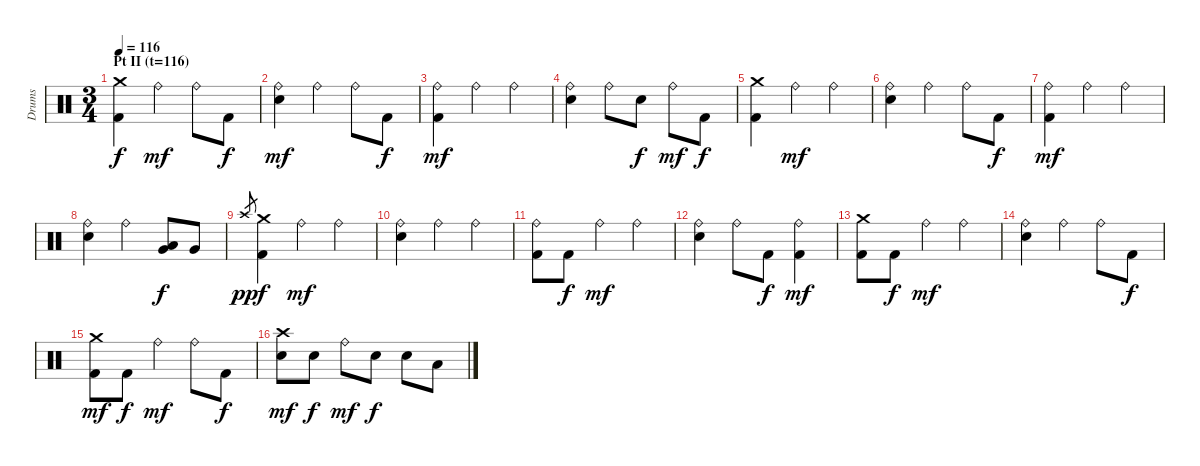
\track ("Drums" "Drums") {instrument percussion}
\staff {score}
\articulation defaults
\ts (3 4)
\section ("" "Pt II (t=116)")
\tempo 116
\clef neutral
\ks c
("Kick (hit) 2" "Crash medium (hit)").4{dy f} "Ride (bell)".4{dy mf} "Ride (bell)".8 "Kick (hit) 2".8{dy f} |
("Electric Snare (hit)" "Ride (bell)").4{dy mf} "Ride (bell)".4 "Ride (bell)".8 "Kick (hit) 2".8{dy f} |
("Kick (hit) 2" "Ride (bell)").4{dy mf} "Ride (bell)".4 "Ride (bell)".4 |
("Electric Snare (hit)" "Ride (bell)").4 "Ride (bell)".8 "Electric Snare (hit)".8{dy f} "Ride (bell)".8{dy mf} "Kick (hit) 2".8{dy f} |
("Kick (hit) 2" "Crash medium (hit)").4 "Ride (bell)".4{dy mf} "Ride (bell)".4 |
("Electric Snare (hit)" "Ride (bell)").4 "Ride (bell)".4 "Ride (bell)".8 "Kick (hit) 2".8{dy f} |
("Kick (hit) 2" "Ride (bell)").4{dy mf} "Ride (bell)".4 "Ride (bell)".4 |
("Electric Snare (hit)" "Ride (bell)").4 "Ride (bell)".4 ("Very Low Tom (hit)" "Low Tom (hit)").8{dy f} "Very Low Tom (hit)".8 |
"Crash high (hit)".8{gr dy pp} ("Kick (hit) 2" "Crash medium (hit)").4{dy f} "Ride (bell)".4{dy mf} "Ride (bell)".4 |
("Electric Snare (hit)" "Ride (bell)").4 "Ride (bell)".4 "Ride (bell)".4 |
("Kick (hit) 2" "Ride (bell)").8 "Kick (hit) 2".8{dy f} "Ride (bell)".4{dy mf} "Ride (bell)".4 |
("Electric Snare (hit)" "Ride (bell)").4 "Ride (bell)".8 "Kick (hit) 2".8{dy f} ("Kick (hit) 2" "Ride (bell)").4{dy mf} |
("Kick (hit) 2" "Crash medium (hit)").8 "Kick (hit) 2".8{dy f} "Ride (bell)".4{dy mf} "Ride (bell)".4 |
("Electric Snare (hit)" "Ride (bell)").4 "Ride (bell)".4 "Ride (bell)".8 "Kick (hit) 2".8{dy f} |
("Kick (hit) 2" "Crash medium (hit)").8{dy mf} "Kick (hit) 2".8{dy f} "Ride (bell)".4{dy mf} "Ride (bell)".8 "Kick (hit) 2".8{dy f} |
("Electric Snare (hit)" "Crash high (hit)").8{dy mf} "Electric Snare (hit)".8{dy f} "Ride (bell)".8{dy mf} "Electric Snare (hit)".8{dy f} "Electric Snare (hit)".8 "Low Tom (hit)".8
